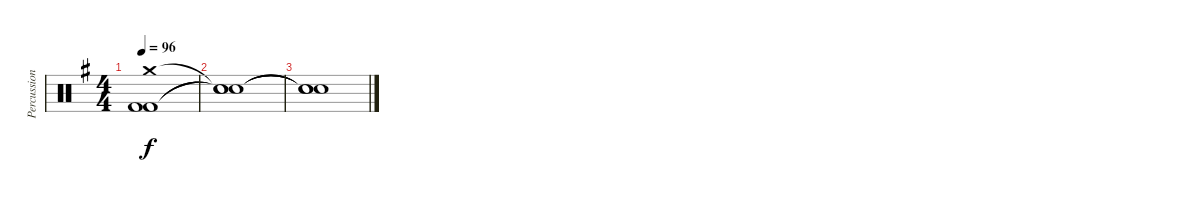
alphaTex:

\track ("Percussion" "Percussion") {instrument percussion}
\staff {score}
\articulation defaults
\ts (4 4)
\tempo 96
\clef neutral
\ks g
("Crash medium (hit)" "Kick (hit) 2" "Kick (hit) 2").1{dy f} |
("Snare (hit)"{t} "Snare (hit)"{t} "Snare (hit)"{t}).1 |
("Snare (hit)"{t} "Snare (hit)"{t} "Snare (hit)"{t}).1
